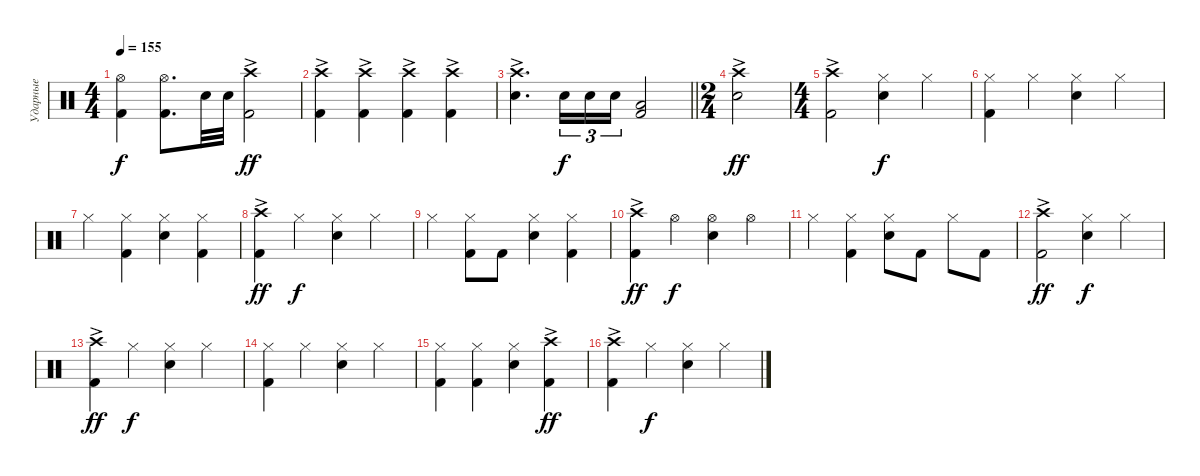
\track ("Ударные" "Ударные") {instrument percussion}
\staff
\articulation defaults
\ts (4 4)
\tempo 155
\clef neutral
\ks c
("Kick (hit) 2" "Hi-Hat (open)").4{dy f} ("Kick (hit) 2" "Hi-Hat (open)").8{d} "Electric Snare (hit)".32 "Electric Snare (hit)".32 ("Kick (hit) 2" "Crash high (hit)"{ac}).2{dy ff} |
("Kick (hit) 2" "Crash high (hit)"{ac}).4 ("Kick (hit) 2" "Crash high (hit)"{ac}).4 ("Kick (hit) 2" "Crash high (hit)"{ac}).4 ("Kick (hit) 2" "Crash high (hit)"{ac}).4 |
\barLineRight lightlight
("Snare (hit) 2" "Crash high (hit)"{ac}).4{d} "Electric Snare (hit)".16{tu (3 2) dy f} "Electric Snare (hit)".16{tu (3 2)} "Electric Snare (hit)".16{tu (3 2)} ("Kick (hit) 2" "Low Floor Tom (hit)").2 |
\ts (2 4)
("Snare (hit) 2" "Crash high (hit)"{ac}).2{dy ff} |
\ts (4 4)
("Kick (hit) 2" "Crash high (hit)"{ac}).2 ("Snare (hit) 2" "Hi-Hat (closed)").4{dy f} "Hi-Hat (closed)".4 |
("Kick (hit) 2" "Hi-Hat (closed)").4 "Hi-Hat (closed)".4 ("Snare (hit) 2" "Hi-Hat (closed)").4 "Hi-Hat (closed)".4 |
"Hi-Hat (closed)".4 ("Kick (hit) 2" "Hi-Hat (closed)").4 ("Snare (hit) 2" "Hi-Hat (closed)").4 ("Kick (hit) 2" "Hi-Hat (closed)").4 |
("Kick (hit) 2" "Crash high (hit)"{ac}).4{dy ff} "Hi-Hat (closed)".4{dy f} ("Snare (hit) 2" "Hi-Hat (closed)").4 "Hi-Hat (closed)".4 |
"Hi-Hat (closed)".4 ("Kick (hit) 2" "Hi-Hat (closed)").8 "Kick (hit) 2".8 ("Snare (hit) 2" "Hi-Hat (closed)").4 ("Kick (hit) 2" "Hi-Hat (closed)").4 |
("Kick (hit) 2" "Crash high (hit)"{ac}).4{dy ff} "Hi-Hat (open)".4{dy f} ("Snare (hit) 2" "Hi-Hat (open)").4 "Hi-Hat (open)".4 |
"Hi-Hat (closed)".4 ("Kick (hit) 2" "Hi-Hat (closed)").4 ("Snare (hit) 2" "Hi-Hat (closed)").8 "Kick (hit) 2".8 "Hi-Hat (closed)".8 "Kick (hit) 2".8 |
("Kick (hit) 2" "Crash high (hit)"{ac}).2{dy ff} ("Snare (hit) 2" "Hi-Hat (closed)").4{dy f} "Hi-Hat (closed)".4 |
("Kick (hit) 2" "Crash high (hit)"{ac}).4{dy ff} "Hi-Hat (closed)".4{dy f} ("Snare (hit) 2" "Hi-Hat (closed)").4 "Hi-Hat (closed)".4 |
("Kick (hit) 2" "Hi-Hat (closed)").4 "Hi-Hat (closed)".4 ("Snare (hit) 2" "Hi-Hat (closed)").4 "Hi-Hat (closed)".4 |
("Kick (hit) 2" "Hi-Hat (closed)").4 ("Kick (hit) 2" "Hi-Hat (closed)").4 ("Snare (hit) 2" "Hi-Hat (closed)").4 ("Kick (hit) 2" "Crash high (hit)"{ac}).4{dy ff} |
("Kick (hit) 2" "Crash high (hit)"{ac}).4 "Hi-Hat (closed)".4{dy f} ("Snare (hit) 2" "Hi-Hat (closed)").4 "Hi-Hat (closed)".4
